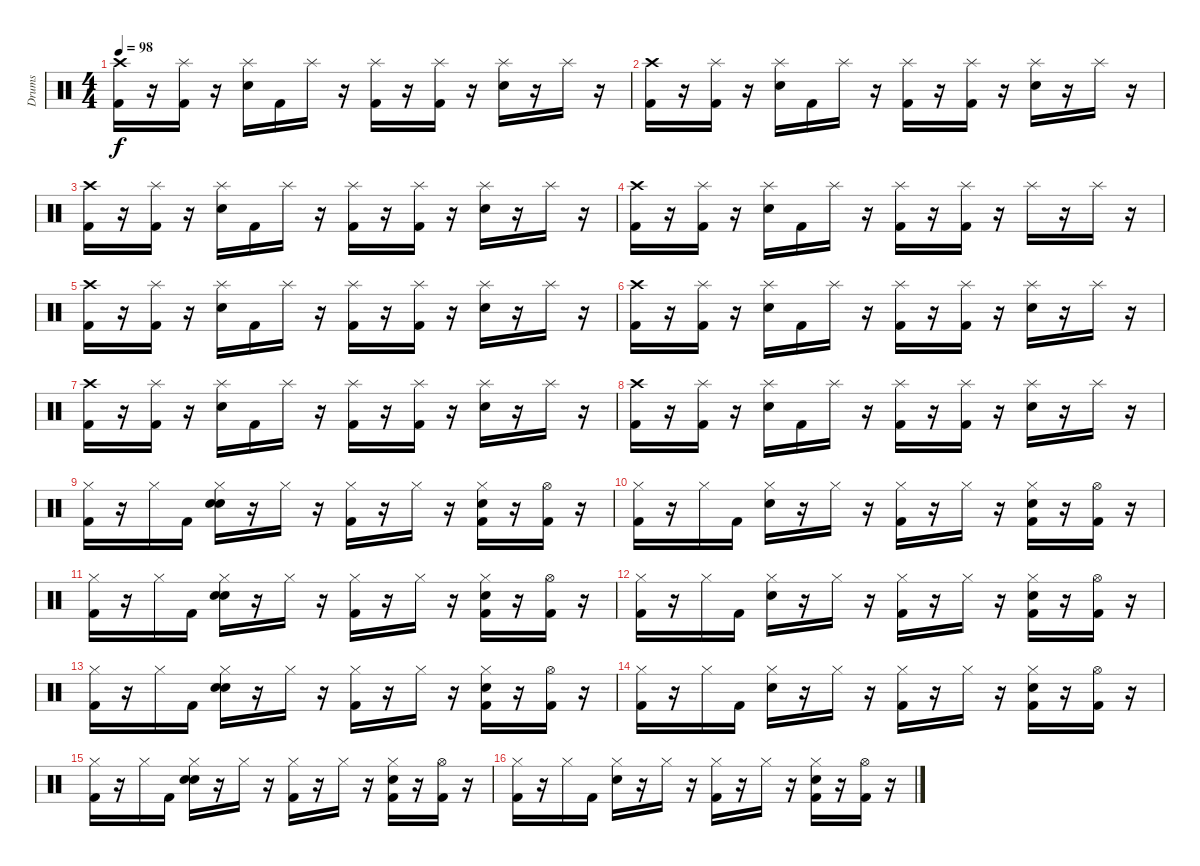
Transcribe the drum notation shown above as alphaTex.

\track ("Drums" "Drums") {instrument percussion}
\staff {score}
\articulation defaults
\ts (4 4)
\tempo 98
\clef neutral
\ks c
("Crash high (hit)" "Kick (hit) 2").16{dy f} r.16 ("Splash (hit)" "Kick (hit) 2").16 r.16 ("Splash (hit)" "Electric Snare (hit)").16 "Kick (hit) 2".16 "Splash (hit)".16 r.16 ("Splash (hit)" "Kick (hit) 2").16 r.16 ("Splash (hit)" "Kick (hit) 2").16 r.16 ("Splash (hit)" "Electric Snare (hit)").16 r.16 "Splash (hit)".16 r.16 |
("Crash high (hit)" "Kick (hit) 2").16 r.16 ("Splash (hit)" "Kick (hit) 2").16 r.16 ("Splash (hit)" "Electric Snare (hit)").16 "Kick (hit) 2".16 "Splash (hit)".16 r.16 ("Splash (hit)" "Kick (hit) 2").16 r.16 ("Splash (hit)" "Kick (hit) 2").16 r.16 ("Splash (hit)" "Electric Snare (hit)").16 r.16 "Splash (hit)".16 r.16 |
("Crash high (hit)" "Kick (hit) 2").16 r.16 ("Splash (hit)" "Kick (hit) 2").16 r.16 ("Splash (hit)" "Electric Snare (hit)").16 "Kick (hit) 2".16 "Splash (hit)".16 r.16 ("Splash (hit)" "Kick (hit) 2").16 r.16 ("Splash (hit)" "Kick (hit) 2").16 r.16 ("Splash (hit)" "Electric Snare (hit)").16 r.16 "Splash (hit)".16 r.16 |
("Crash high (hit)" "Kick (hit) 2").16 r.16 ("Splash (hit)" "Kick (hit) 2").16 r.16 ("Splash (hit)" "Electric Snare (hit)").16 "Kick (hit) 2".16 "Splash (hit)".16 r.16 ("Splash (hit)" "Kick (hit) 2").16 r.16 ("Splash (hit)" "Kick (hit) 2").16 r.16 "Splash (hit)".16 r.16 "Splash (hit)".16 r.16 |
("Crash high (hit)" "Kick (hit) 2").16 r.16 ("Splash (hit)" "Kick (hit) 2").16 r.16 ("Splash (hit)" "Electric Snare (hit)").16 "Kick (hit) 2".16 "Splash (hit)".16 r.16 ("Splash (hit)" "Kick (hit) 2").16 r.16 ("Splash (hit)" "Kick (hit) 2").16 r.16 ("Splash (hit)" "Electric Snare (hit)").16 r.16 "Splash (hit)".16 r.16 |
("Crash high (hit)" "Kick (hit) 2").16 r.16 ("Splash (hit)" "Kick (hit) 2").16 r.16 ("Splash (hit)" "Electric Snare (hit)").16 "Kick (hit) 2".16 "Splash (hit)".16 r.16 ("Splash (hit)" "Kick (hit) 2").16 r.16 ("Splash (hit)" "Kick (hit) 2").16 r.16 ("Splash (hit)" "Electric Snare (hit)").16 r.16 "Splash (hit)".16 r.16 |
("Crash high (hit)" "Kick (hit) 2").16 r.16 ("Splash (hit)" "Kick (hit) 2").16 r.16 ("Splash (hit)" "Electric Snare (hit)").16 "Kick (hit) 2".16 "Splash (hit)".16 r.16 ("Splash (hit)" "Kick (hit) 2").16 r.16 ("Splash (hit)" "Kick (hit) 2").16 r.16 ("Splash (hit)" "Electric Snare (hit)").16 r.16 "Splash (hit)".16 r.16 |
("Crash high (hit)" "Kick (hit) 2").16 r.16 ("Splash (hit)" "Kick (hit) 2").16 r.16 ("Splash (hit)" "Electric Snare (hit)").16 "Kick (hit) 2".16 "Splash (hit)".16 r.16 ("Splash (hit)" "Kick (hit) 2").16 r.16 ("Splash (hit)" "Kick (hit) 2").16 r.16 ("Splash (hit)" "Electric Snare (hit)").16 r.16 "Splash (hit)".16 r.16 |
("Kick (hit) 2" "Hi-Hat (closed)").16 r.16 "Hi-Hat (closed)".16 "Kick (hit) 2".16 ("Snare (hit)" "Snare (hit) 2" "Hi-Hat (closed)").16 r.16 "Hi-Hat (closed)".16 r.16 ("Kick (hit) 2" "Hi-Hat (closed)").16 r.16 "Hi-Hat (closed)".16 r.16 ("Kick (hit) 2" "Snare (hit) 2" "Hi-Hat (closed)").16 r.16 ("Kick (hit) 2" "Hi-Hat (open)").16 r.16 |
("Kick (hit) 2" "Hi-Hat (closed)").16 r.16 "Hi-Hat (closed)".16 "Kick (hit) 2".16 ("Snare (hit) 2" "Hi-Hat (closed)").16 r.16 "Hi-Hat (closed)".16 r.16 ("Kick (hit) 2" "Hi-Hat (closed)").16 r.16 "Hi-Hat (closed)".16 r.16 ("Kick (hit) 2" "Snare (hit) 2" "Hi-Hat (closed)").16 r.16 ("Kick (hit) 2" "Hi-Hat (open)").16 r.16 |
("Kick (hit) 2" "Hi-Hat (closed)").16 r.16 "Hi-Hat (closed)".16 "Kick (hit) 2".16 ("Snare (hit)" "Snare (hit) 2" "Hi-Hat (closed)").16 r.16 "Hi-Hat (closed)".16 r.16 ("Kick (hit) 2" "Hi-Hat (closed)").16 r.16 "Hi-Hat (closed)".16 r.16 ("Kick (hit) 2" "Snare (hit) 2" "Hi-Hat (closed)").16 r.16 ("Kick (hit) 2" "Hi-Hat (open)").16 r.16 |
("Kick (hit) 2" "Hi-Hat (closed)").16 r.16 "Hi-Hat (closed)".16 "Kick (hit) 2".16 ("Snare (hit) 2" "Hi-Hat (closed)").16 r.16 "Hi-Hat (closed)".16 r.16 ("Kick (hit) 2" "Hi-Hat (closed)").16 r.16 "Hi-Hat (closed)".16 r.16 ("Kick (hit) 2" "Snare (hit) 2" "Hi-Hat (closed)").16 r.16 ("Kick (hit) 2" "Hi-Hat (open)").16 r.16 |
("Kick (hit) 2" "Hi-Hat (closed)").16 r.16 "Hi-Hat (closed)".16 "Kick (hit) 2".16 ("Snare (hit)" "Snare (hit) 2" "Hi-Hat (closed)").16 r.16 "Hi-Hat (closed)".16 r.16 ("Kick (hit) 2" "Hi-Hat (closed)").16 r.16 "Hi-Hat (closed)".16 r.16 ("Kick (hit) 2" "Snare (hit) 2" "Hi-Hat (closed)").16 r.16 ("Kick (hit) 2" "Hi-Hat (open)").16 r.16 |
("Kick (hit) 2" "Hi-Hat (closed)").16 r.16 "Hi-Hat (closed)".16 "Kick (hit) 2".16 ("Snare (hit) 2" "Hi-Hat (closed)").16 r.16 "Hi-Hat (closed)".16 r.16 ("Kick (hit) 2" "Hi-Hat (closed)").16 r.16 "Hi-Hat (closed)".16 r.16 ("Kick (hit) 2" "Snare (hit) 2" "Hi-Hat (closed)").16 r.16 ("Kick (hit) 2" "Hi-Hat (open)").16 r.16 |
("Kick (hit) 2" "Hi-Hat (closed)").16 r.16 "Hi-Hat (closed)".16 "Kick (hit) 2".16 ("Snare (hit)" "Snare (hit) 2" "Hi-Hat (closed)").16 r.16 "Hi-Hat (closed)".16 r.16 ("Kick (hit) 2" "Hi-Hat (closed)").16 r.16 "Hi-Hat (closed)".16 r.16 ("Kick (hit) 2" "Snare (hit) 2" "Hi-Hat (closed)").16 r.16 ("Kick (hit) 2" "Hi-Hat (open)").16 r.16 |
("Kick (hit) 2" "Hi-Hat (closed)").16 r.16 "Hi-Hat (closed)".16 "Kick (hit) 2".16 ("Snare (hit) 2" "Hi-Hat (closed)").16 r.16 "Hi-Hat (closed)".16 r.16 ("Kick (hit) 2" "Hi-Hat (closed)").16 r.16 "Hi-Hat (closed)".16 r.16 ("Kick (hit) 2" "Snare (hit) 2" "Hi-Hat (closed)").16 r.16 ("Kick (hit) 2" "Hi-Hat (open)").16 r.16
